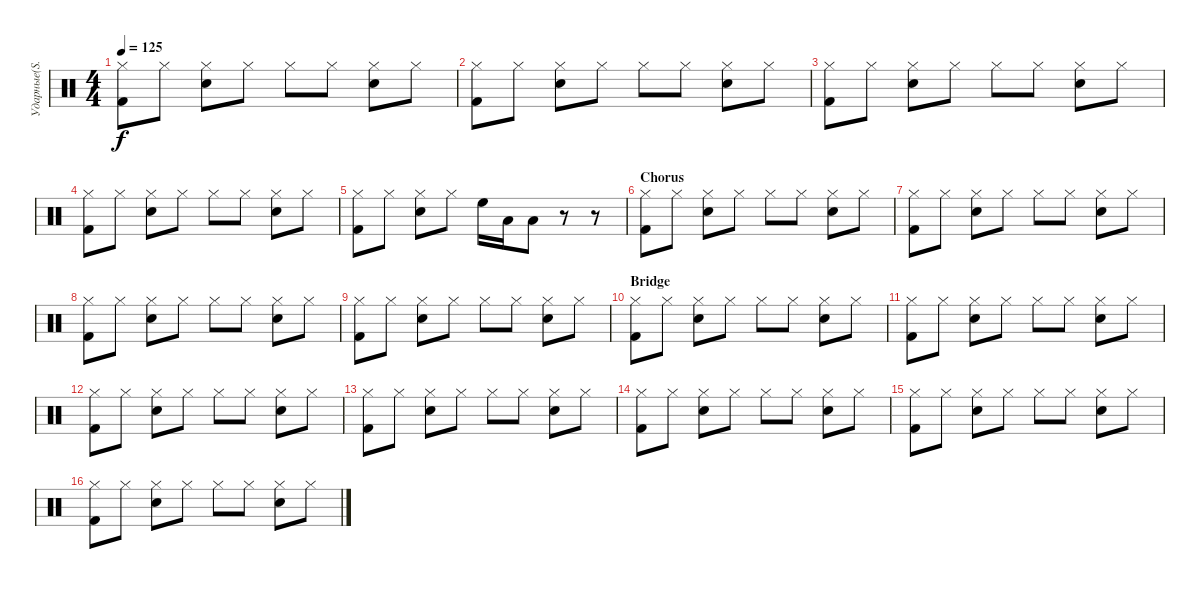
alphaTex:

\track ("Ударные(S. Travis)" "Ударные(S.") {instrument percussion}
\staff {score}
\articulation defaults
\ts (4 4)
\tempo 125
\clef neutral
\ks c
("Hi-Hat (closed)" "Kick (hit) 2").8{dy f} "Hi-Hat (closed)".8 ("Hi-Hat (closed)" "Snare (hit) 2").8 "Hi-Hat (closed)".8 "Hi-Hat (closed)".8 "Hi-Hat (closed)".8 ("Hi-Hat (closed)" "Snare (hit) 2").8 "Hi-Hat (closed)".8 |
("Hi-Hat (closed)" "Kick (hit) 2").8 "Hi-Hat (closed)".8 ("Hi-Hat (closed)" "Snare (hit) 2").8 "Hi-Hat (closed)".8 "Hi-Hat (closed)".8 "Hi-Hat (closed)".8 ("Hi-Hat (closed)" "Snare (hit) 2").8 "Hi-Hat (closed)".8 |
("Hi-Hat (closed)" "Kick (hit) 2").8 "Hi-Hat (closed)".8 ("Hi-Hat (closed)" "Snare (hit) 2").8 "Hi-Hat (closed)".8 "Hi-Hat (closed)".8 "Hi-Hat (closed)".8 ("Hi-Hat (closed)" "Snare (hit) 2").8 "Hi-Hat (closed)".8 |
("Hi-Hat (closed)" "Kick (hit) 2").8 "Hi-Hat (closed)".8 ("Hi-Hat (closed)" "Snare (hit) 2").8 "Hi-Hat (closed)".8 "Hi-Hat (closed)".8 "Hi-Hat (closed)".8 ("Hi-Hat (closed)" "Snare (hit) 2").8 "Hi-Hat (closed)".8 |
("Hi-Hat (closed)" "Kick (hit) 2").8 "Hi-Hat (closed)".8 ("Hi-Hat (closed)" "Snare (hit) 2").8 "Hi-Hat (closed)".8 "High Floor Tom (hit)".16 "Low Tom (hit)".16 "Low Tom (hit)".8 r.8 r.8 |
\section ("" "Chorus")
("Hi-Hat (closed)" "Kick (hit) 2").8 "Hi-Hat (closed)".8 ("Hi-Hat (closed)" "Snare (hit) 2").8 "Hi-Hat (closed)".8 "Hi-Hat (closed)".8 "Hi-Hat (closed)".8 ("Hi-Hat (closed)" "Snare (hit) 2").8 "Hi-Hat (closed)".8 |
("Hi-Hat (closed)" "Kick (hit) 2").8 "Hi-Hat (closed)".8 ("Hi-Hat (closed)" "Snare (hit) 2").8 "Hi-Hat (closed)".8 "Hi-Hat (closed)".8 "Hi-Hat (closed)".8 ("Hi-Hat (closed)" "Snare (hit) 2").8 "Hi-Hat (closed)".8 |
("Hi-Hat (closed)" "Kick (hit) 2").8 "Hi-Hat (closed)".8 ("Hi-Hat (closed)" "Snare (hit) 2").8 "Hi-Hat (closed)".8 "Hi-Hat (closed)".8 "Hi-Hat (closed)".8 ("Hi-Hat (closed)" "Snare (hit) 2").8 "Hi-Hat (closed)".8 |
("Hi-Hat (closed)" "Kick (hit) 2").8 "Hi-Hat (closed)".8 ("Hi-Hat (closed)" "Snare (hit) 2").8 "Hi-Hat (closed)".8 "Hi-Hat (closed)".8 "Hi-Hat (closed)".8 ("Hi-Hat (closed)" "Snare (hit) 2").8 "Hi-Hat (closed)".8 |
\section ("" "Bridge")
("Hi-Hat (closed)" "Kick (hit) 2").8 "Hi-Hat (closed)".8 ("Hi-Hat (closed)" "Snare (hit) 2").8 "Hi-Hat (closed)".8 "Hi-Hat (closed)".8 "Hi-Hat (closed)".8 ("Hi-Hat (closed)" "Snare (hit) 2").8 "Hi-Hat (closed)".8 |
("Hi-Hat (closed)" "Kick (hit) 2").8 "Hi-Hat (closed)".8 ("Hi-Hat (closed)" "Snare (hit) 2").8 "Hi-Hat (closed)".8 "Hi-Hat (closed)".8 "Hi-Hat (closed)".8 ("Hi-Hat (closed)" "Snare (hit) 2").8 "Hi-Hat (closed)".8 |
("Hi-Hat (closed)" "Kick (hit) 2").8 "Hi-Hat (closed)".8 ("Hi-Hat (closed)" "Snare (hit) 2").8 "Hi-Hat (closed)".8 "Hi-Hat (closed)".8 "Hi-Hat (closed)".8 ("Hi-Hat (closed)" "Snare (hit) 2").8 "Hi-Hat (closed)".8 |
("Hi-Hat (closed)" "Kick (hit) 2").8 "Hi-Hat (closed)".8 ("Hi-Hat (closed)" "Snare (hit) 2").8 "Hi-Hat (closed)".8 "Hi-Hat (closed)".8 "Hi-Hat (closed)".8 ("Hi-Hat (closed)" "Snare (hit) 2").8 "Hi-Hat (closed)".8 |
("Hi-Hat (closed)" "Kick (hit) 2").8 "Hi-Hat (closed)".8 ("Hi-Hat (closed)" "Snare (hit) 2").8 "Hi-Hat (closed)".8 "Hi-Hat (closed)".8 "Hi-Hat (closed)".8 ("Hi-Hat (closed)" "Snare (hit) 2").8 "Hi-Hat (closed)".8 |
("Hi-Hat (closed)" "Kick (hit) 2").8 "Hi-Hat (closed)".8 ("Hi-Hat (closed)" "Snare (hit) 2").8 "Hi-Hat (closed)".8 "Hi-Hat (closed)".8 "Hi-Hat (closed)".8 ("Hi-Hat (closed)" "Snare (hit) 2").8 "Hi-Hat (closed)".8 |
("Hi-Hat (closed)" "Kick (hit) 2").8 "Hi-Hat (closed)".8 ("Hi-Hat (closed)" "Snare (hit) 2").8 "Hi-Hat (closed)".8 "Hi-Hat (closed)".8 "Hi-Hat (closed)".8 ("Hi-Hat (closed)" "Snare (hit) 2").8 "Hi-Hat (closed)".8
